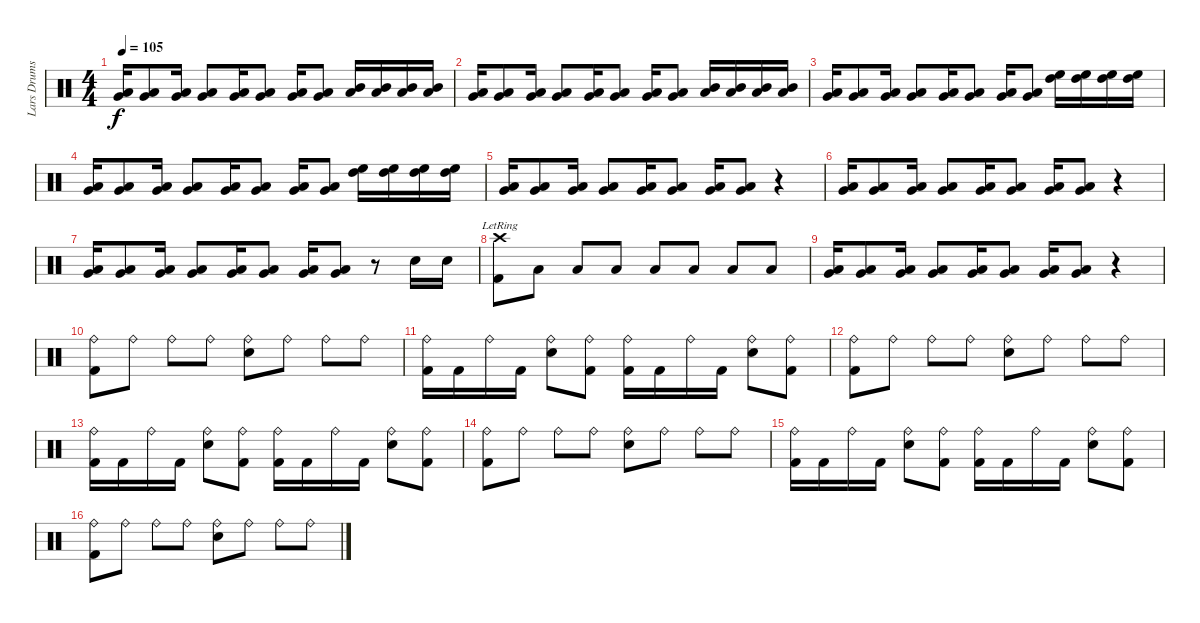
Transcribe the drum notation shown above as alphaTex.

\track ("Lars Drums" "Lars Drums") {instrument percussion}
\staff {score}
\articulation defaults
\ts (4 4)
\tempo 105
\clef neutral
\ks c
("Very Low Tom (hit)" "Low Floor Tom (hit)").16{dy f} ("Very Low Tom (hit)" "Low Floor Tom (hit)").8 ("Very Low Tom (hit)" "Low Floor Tom (hit)").16 ("Very Low Tom (hit)" "Low Floor Tom (hit)").8 ("Very Low Tom (hit)" "Low Floor Tom (hit)").16 ("Very Low Tom (hit)" "Low Floor Tom (hit)").8 ("Very Low Tom (hit)" "Low Floor Tom (hit)").16 ("Very Low Tom (hit)" "Low Floor Tom (hit)").8 ("Mid Tom (hit)" "Low Tom (hit)").16 ("Mid Tom (hit)" "Low Tom (hit)").16 ("Mid Tom (hit)" "Low Tom (hit)").16 ("Mid Tom (hit)" "Low Tom (hit)").16 |
("Very Low Tom (hit)" "Low Floor Tom (hit)").16 ("Very Low Tom (hit)" "Low Floor Tom (hit)").8 ("Very Low Tom (hit)" "Low Floor Tom (hit)").16 ("Very Low Tom (hit)" "Low Floor Tom (hit)").8 ("Very Low Tom (hit)" "Low Floor Tom (hit)").16 ("Very Low Tom (hit)" "Low Floor Tom (hit)").8 ("Very Low Tom (hit)" "Low Floor Tom (hit)").16 ("Very Low Tom (hit)" "Low Floor Tom (hit)").8 ("Mid Tom (hit)" "Low Tom (hit)").16 ("Mid Tom (hit)" "Low Tom (hit)").16 ("Mid Tom (hit)" "Low Tom (hit)").16 ("Mid Tom (hit)" "Low Tom (hit)").16 |
("Very Low Tom (hit)" "Low Floor Tom (hit)").16 ("Very Low Tom (hit)" "Low Floor Tom (hit)").8 ("Very Low Tom (hit)" "Low Floor Tom (hit)").16 ("Very Low Tom (hit)" "Low Floor Tom (hit)").8 ("Very Low Tom (hit)" "Low Floor Tom (hit)").16 ("Very Low Tom (hit)" "Low Floor Tom (hit)").8 ("Very Low Tom (hit)" "Low Floor Tom (hit)").16 ("Very Low Tom (hit)" "Low Floor Tom (hit)").8 ("High Floor Tom (hit)" "High Tom (hit)").16 ("High Floor Tom (hit)" "High Tom (hit)").16 ("High Floor Tom (hit)" "High Tom (hit)").16 ("High Floor Tom (hit)" "High Tom (hit)").16 |
("Very Low Tom (hit)" "Low Floor Tom (hit)").16 ("Very Low Tom (hit)" "Low Floor Tom (hit)").8 ("Very Low Tom (hit)" "Low Floor Tom (hit)").16 ("Very Low Tom (hit)" "Low Floor Tom (hit)").8 ("Very Low Tom (hit)" "Low Floor Tom (hit)").16 ("Very Low Tom (hit)" "Low Floor Tom (hit)").8 ("Very Low Tom (hit)" "Low Floor Tom (hit)").16 ("Very Low Tom (hit)" "Low Floor Tom (hit)").8 ("High Floor Tom (hit)" "High Tom (hit)").16 ("High Floor Tom (hit)" "High Tom (hit)").16 ("High Floor Tom (hit)" "High Tom (hit)").16 ("High Floor Tom (hit)" "High Tom (hit)").16 |
("Very Low Tom (hit)" "Low Floor Tom (hit)").16 ("Very Low Tom (hit)" "Low Floor Tom (hit)").8 ("Very Low Tom (hit)" "Low Floor Tom (hit)").16 ("Very Low Tom (hit)" "Low Floor Tom (hit)").8 ("Very Low Tom (hit)" "Low Floor Tom (hit)").16 ("Very Low Tom (hit)" "Low Floor Tom (hit)").8 ("Very Low Tom (hit)" "Low Floor Tom (hit)").16 ("Very Low Tom (hit)" "Low Floor Tom (hit)").8 r.4 |
("Very Low Tom (hit)" "Low Floor Tom (hit)").16 ("Very Low Tom (hit)" "Low Floor Tom (hit)").8 ("Very Low Tom (hit)" "Low Floor Tom (hit)").16 ("Very Low Tom (hit)" "Low Floor Tom (hit)").8 ("Very Low Tom (hit)" "Low Floor Tom (hit)").16 ("Very Low Tom (hit)" "Low Floor Tom (hit)").8 ("Very Low Tom (hit)" "Low Floor Tom (hit)").16 ("Very Low Tom (hit)" "Low Floor Tom (hit)").8 r.4 |
("Very Low Tom (hit)" "Low Floor Tom (hit)").16 ("Very Low Tom (hit)" "Low Floor Tom (hit)").8 ("Very Low Tom (hit)" "Low Floor Tom (hit)").16 ("Very Low Tom (hit)" "Low Floor Tom (hit)").8 ("Very Low Tom (hit)" "Low Floor Tom (hit)").16 ("Very Low Tom (hit)" "Low Floor Tom (hit)").8 ("Very Low Tom (hit)" "Low Floor Tom (hit)").16 ("Very Low Tom (hit)" "Low Floor Tom (hit)").8 r.8 "Snare (hit) 2".16 "Snare (hit) 2".16 |
("Crash high (hit)"{lr} "Kick (hit) 2").8 "Low Floor Tom (hit)".8{volume 10} "Low Floor Tom (hit)".8{volume 16} "Low Floor Tom (hit)".8 "Low Floor Tom (hit)".8 "Low Floor Tom (hit)".8 "Low Floor Tom (hit)".8 "Low Floor Tom (hit)".8 |
("Very Low Tom (hit)" "Low Floor Tom (hit)").16 ("Very Low Tom (hit)" "Low Floor Tom (hit)").8 ("Very Low Tom (hit)" "Low Floor Tom (hit)").16 ("Very Low Tom (hit)" "Low Floor Tom (hit)").8 ("Very Low Tom (hit)" "Low Floor Tom (hit)").16 ("Very Low Tom (hit)" "Low Floor Tom (hit)").8 ("Very Low Tom (hit)" "Low Floor Tom (hit)").16 ("Very Low Tom (hit)" "Low Floor Tom (hit)").8 r.4 |
("Ride (bell)" "Kick (hit) 2").8 "Ride (bell)".8 "Ride (bell)".8 "Ride (bell)".8 ("Ride (bell)" "Snare (hit) 2").8 "Ride (bell)".8 "Ride (bell)".8 "Ride (bell)".8 |
("Ride (bell)" "Kick (hit) 2").16 "Kick (hit) 2".16 "Ride (bell)".16 "Kick (hit) 2".16 ("Ride (bell)" "Snare (hit) 2").8 ("Ride (bell)" "Kick (hit) 2").8 ("Ride (bell)" "Kick (hit) 2").16 "Kick (hit) 2".16 "Ride (bell)".16 "Kick (hit) 2".16 ("Ride (bell)" "Snare (hit) 2").8 ("Ride (bell)" "Kick (hit) 2").8 |
("Ride (bell)" "Kick (hit) 2").8 "Ride (bell)".8 "Ride (bell)".8 "Ride (bell)".8 ("Ride (bell)" "Snare (hit) 2").8 "Ride (bell)".8 "Ride (bell)".8 "Ride (bell)".8 |
("Ride (bell)" "Kick (hit) 2").16 "Kick (hit) 2".16 "Ride (bell)".16 "Kick (hit) 2".16 ("Ride (bell)" "Snare (hit) 2").8 ("Ride (bell)" "Kick (hit) 2").8 ("Ride (bell)" "Kick (hit) 2").16 "Kick (hit) 2".16 "Ride (bell)".16 "Kick (hit) 2".16 ("Ride (bell)" "Snare (hit) 2").8 ("Ride (bell)" "Kick (hit) 2").8 |
("Ride (bell)" "Kick (hit) 2").8 "Ride (bell)".8 "Ride (bell)".8 "Ride (bell)".8 ("Ride (bell)" "Snare (hit) 2").8 "Ride (bell)".8 "Ride (bell)".8 "Ride (bell)".8 |
("Ride (bell)" "Kick (hit) 2").16 "Kick (hit) 2".16 "Ride (bell)".16 "Kick (hit) 2".16 ("Ride (bell)" "Snare (hit) 2").8 ("Ride (bell)" "Kick (hit) 2").8 ("Ride (bell)" "Kick (hit) 2").16 "Kick (hit) 2".16 "Ride (bell)".16 "Kick (hit) 2".16 ("Ride (bell)" "Snare (hit) 2").8 ("Ride (bell)" "Kick (hit) 2").8 |
("Ride (bell)" "Kick (hit) 2").8 "Ride (bell)".8 "Ride (bell)".8 "Ride (bell)".8 ("Ride (bell)" "Snare (hit) 2").8 "Ride (bell)".8 "Ride (bell)".8 "Ride (bell)".8
